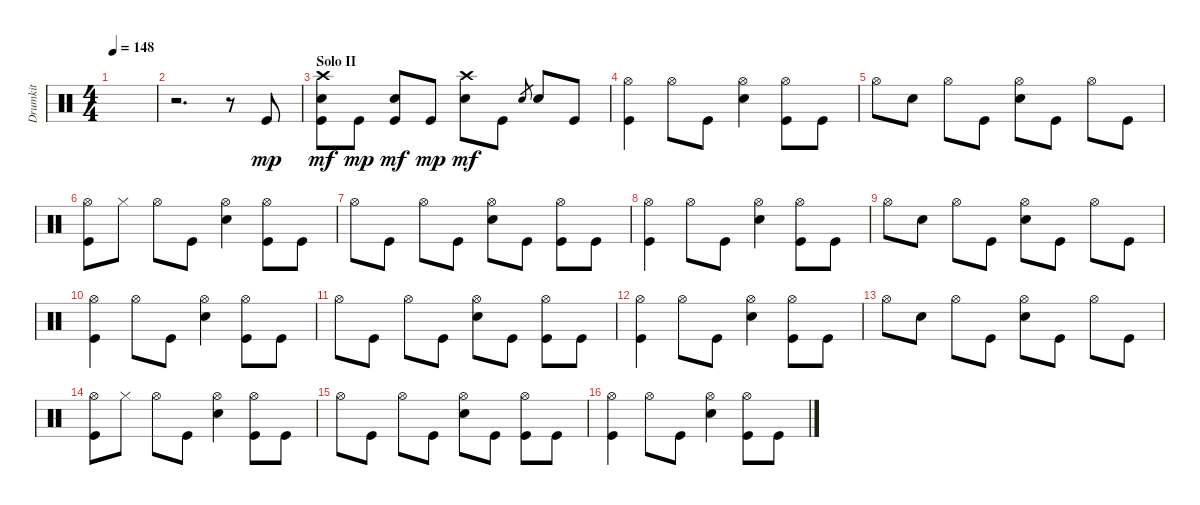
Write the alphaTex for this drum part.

\track ("Drumkit" "Drumkit") {instrument percussion}
\staff {score}
\articulation defaults
\ts (4 4)
\tempo 148
\clef neutral
\ks c
|
r.2{d} r.8 "Kick (hit)".8{dy mp} |
\section ("" "Solo II")
("Snare (hit) 2" "Kick (hit)" "Crash high (hit)").8{dy mf} "Kick (hit)".8{dy mp} ("Snare (hit) 2" "Kick (hit)").8{dy mf} "Kick (hit)".8{dy mp} ("Snare (hit) 2" "Crash high (hit)").8{dy mf} "Kick (hit)".8 "Snare (hit)".8{gr} "Snare (hit) 2".8 "Kick (hit)".8 |
("Kick (hit)" "Hi-Hat (open)").4 "Hi-Hat (open)".8 "Kick (hit)".8 ("Snare (hit) 2" "Hi-Hat (open)").4 ("Kick (hit)" "Hi-Hat (open)").8 "Kick (hit)".8 |
"Hi-Hat (open)".8 "Snare (hit) 2".8 "Hi-Hat (open)".8 "Kick (hit)".8 ("Snare (hit) 2" "Hi-Hat (open)").8 "Kick (hit)".8 "Hi-Hat (open)".8 "Kick (hit)".8 |
("Kick (hit)" "Hi-Hat (open)").8 "Hi-Hat (closed)".8 "Hi-Hat (open)".8 "Kick (hit)".8 ("Hi-Hat (open)" "Snare (hit) 2").4 ("Kick (hit)" "Hi-Hat (open)").8 "Kick (hit)".8 |
"Hi-Hat (open)".8 "Kick (hit)".8 "Hi-Hat (open)".8 "Kick (hit)".8 ("Hi-Hat (open)" "Snare (hit) 2").8 "Kick (hit)".8 ("Kick (hit)" "Hi-Hat (open)").8 "Kick (hit)".8 |
("Kick (hit)" "Hi-Hat (open)").4 "Hi-Hat (open)".8 "Kick (hit)".8 ("Snare (hit) 2" "Hi-Hat (open)").4 ("Kick (hit)" "Hi-Hat (open)").8 "Kick (hit)".8 |
"Hi-Hat (open)".8 "Snare (hit) 2".8 "Hi-Hat (open)".8 "Kick (hit)".8 ("Snare (hit) 2" "Hi-Hat (open)").8 "Kick (hit)".8 "Hi-Hat (open)".8 "Kick (hit)".8 |
("Kick (hit)" "Hi-Hat (open)").4 "Hi-Hat (open)".8 "Kick (hit)".8 ("Hi-Hat (open)" "Snare (hit) 2").4 ("Kick (hit)" "Hi-Hat (open)").8 "Kick (hit)".8 |
"Hi-Hat (open)".8 "Kick (hit)".8 "Hi-Hat (open)".8 "Kick (hit)".8 ("Hi-Hat (open)" "Snare (hit) 2").8 "Kick (hit)".8 ("Kick (hit)" "Hi-Hat (open)").8 "Kick (hit)".8 |
("Kick (hit)" "Hi-Hat (open)").4 "Hi-Hat (open)".8 "Kick (hit)".8 ("Snare (hit) 2" "Hi-Hat (open)").4 ("Kick (hit)" "Hi-Hat (open)").8 "Kick (hit)".8 |
"Hi-Hat (open)".8 "Snare (hit) 2".8 "Hi-Hat (open)".8 "Kick (hit)".8 ("Snare (hit) 2" "Hi-Hat (open)").8 "Kick (hit)".8 "Hi-Hat (open)".8 "Kick (hit)".8 |
("Kick (hit)" "Hi-Hat (open)").8 "Hi-Hat (closed)".8 "Hi-Hat (open)".8 "Kick (hit)".8 ("Hi-Hat (open)" "Snare (hit) 2").4 ("Kick (hit)" "Hi-Hat (open)").8 "Kick (hit)".8 |
"Hi-Hat (open)".8 "Kick (hit)".8 "Hi-Hat (open)".8 "Kick (hit)".8 ("Hi-Hat (open)" "Snare (hit) 2").8 "Kick (hit)".8 ("Kick (hit)" "Hi-Hat (open)").8 "Kick (hit)".8 |
("Kick (hit)" "Hi-Hat (open)").4 "Hi-Hat (open)".8 "Kick (hit)".8 ("Snare (hit) 2" "Hi-Hat (open)").4 ("Kick (hit)" "Hi-Hat (open)").8 "Kick (hit)".8
